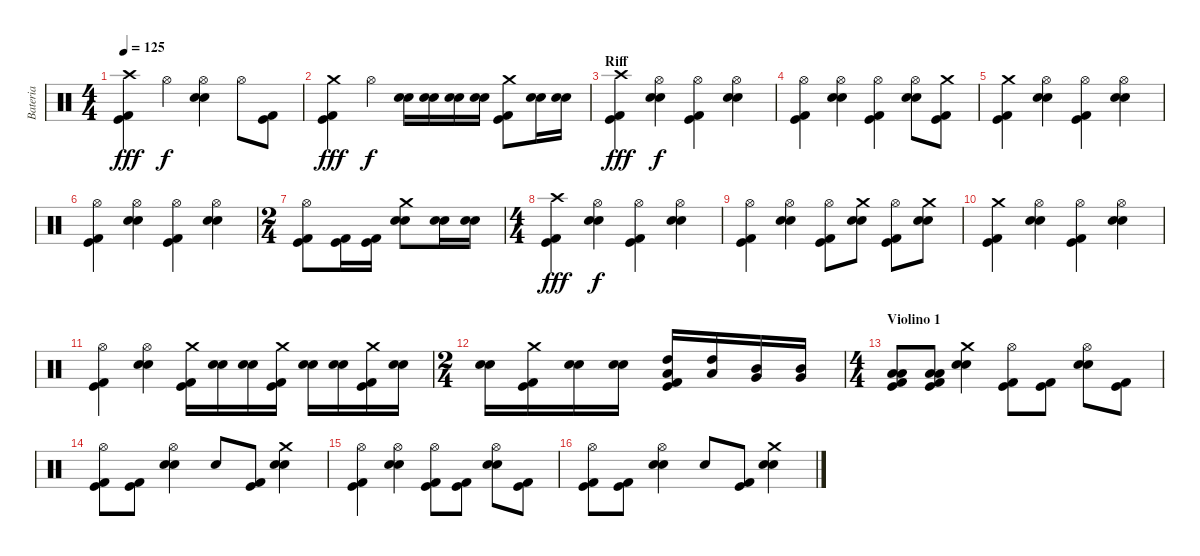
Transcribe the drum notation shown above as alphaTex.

\track ("Bateria" "Bateria") {instrument percussion}
\staff {score}
\articulation defaults
\ts (4 4)
\tempo 125
\clef neutral
\ks c
("Crash high (hit)" "Kick (hit) 2" "Kick (hit)").4{dy fff} "Hi-Hat (open)".4{dy f} ("Hi-Hat (open)" "Electric Snare (hit)" "Snare (hit) 2").4 "Hi-Hat (open)".8 ("Kick (hit) 2" "Kick (hit)").8 |
("Crash medium (hit)" "Kick (hit) 2" "Kick (hit)").4{dy fff} "Hi-Hat (open)".4{dy f} ("Electric Snare (hit)" "Snare (hit) 2").16 ("Electric Snare (hit)" "Snare (hit) 2").16 ("Electric Snare (hit)" "Snare (hit) 2").16 ("Electric Snare (hit)" "Snare (hit) 2").16 ("Crash medium (hit)" "Kick (hit) 2" "Kick (hit)").8 ("Electric Snare (hit)" "Snare (hit) 2").16 ("Electric Snare (hit)" "Snare (hit) 2").16 |
\section ("" "Riff")
("Crash high (hit)" "Kick (hit) 2" "Kick (hit)").4{dy fff} ("Hi-Hat (open)" "Electric Snare (hit)" "Snare (hit) 2").4{dy f} ("Hi-Hat (open)" "Kick (hit) 2" "Kick (hit)").4 ("Hi-Hat (open)" "Electric Snare (hit)" "Snare (hit) 2").4 |
("Hi-Hat (open)" "Kick (hit) 2" "Kick (hit)").4 ("Hi-Hat (open)" "Electric Snare (hit)" "Snare (hit) 2").4 ("Hi-Hat (open)" "Kick (hit) 2" "Kick (hit)").4 ("Hi-Hat (open)" "Electric Snare (hit)" "Snare (hit) 2").8 ("Crash medium (hit)" "Kick (hit) 2" "Kick (hit)").8 |
("Crash medium (hit)" "Kick (hit) 2" "Kick (hit)").4 ("Hi-Hat (open)" "Electric Snare (hit)" "Snare (hit) 2").4 ("Hi-Hat (open)" "Kick (hit) 2" "Kick (hit)").4 ("Hi-Hat (open)" "Electric Snare (hit)" "Snare (hit) 2").4 |
("Hi-Hat (open)" "Kick (hit) 2" "Kick (hit)").4 ("Hi-Hat (open)" "Electric Snare (hit)" "Snare (hit) 2").4 ("Hi-Hat (open)" "Kick (hit) 2" "Kick (hit)").4 ("Hi-Hat (open)" "Electric Snare (hit)" "Snare (hit) 2").4 |
\ts (2 4)
("Hi-Hat (open)" "Kick (hit) 2" "Kick (hit)").8 ("Kick (hit) 2" "Kick (hit)").16 ("Kick (hit) 2" "Kick (hit)").16 ("Crash medium (hit)" "Electric Snare (hit)" "Snare (hit) 2").8 ("Electric Snare (hit)" "Snare (hit) 2").16 ("Electric Snare (hit)" "Snare (hit) 2").16 |
\ts (4 4)
("Crash high (hit)" "Kick (hit) 2" "Kick (hit)").4{dy fff} ("Hi-Hat (open)" "Electric Snare (hit)" "Snare (hit) 2").4{dy f} ("Hi-Hat (open)" "Kick (hit) 2" "Kick (hit)").4 ("Hi-Hat (open)" "Electric Snare (hit)" "Snare (hit) 2").4 |
("Hi-Hat (open)" "Kick (hit) 2" "Kick (hit)").4 ("Hi-Hat (open)" "Electric Snare (hit)" "Snare (hit) 2").4 ("Hi-Hat (open)" "Kick (hit) 2" "Kick (hit)").8 ("Crash medium (hit)" "Electric Snare (hit)" "Snare (hit) 2").8 ("Hi-Hat (open)" "Kick (hit) 2" "Kick (hit)").8 ("Crash medium (hit)" "Electric Snare (hit)" "Snare (hit) 2").8 |
("Crash medium (hit)" "Kick (hit) 2" "Kick (hit)").4 ("Hi-Hat (open)" "Electric Snare (hit)" "Snare (hit) 2").4 ("Hi-Hat (open)" "Kick (hit) 2" "Kick (hit)").4 ("Hi-Hat (open)" "Electric Snare (hit)" "Snare (hit) 2").4 |
("Hi-Hat (open)" "Kick (hit) 2" "Kick (hit)").4 ("Hi-Hat (open)" "Electric Snare (hit)" "Snare (hit) 2").4 ("Crash medium (hit)" "Kick (hit) 2" "Kick (hit)").16 ("Electric Snare (hit)" "Snare (hit) 2").16 ("Electric Snare (hit)" "Snare (hit) 2").16 ("Crash medium (hit)" "Kick (hit) 2" "Kick (hit)").16 ("Electric Snare (hit)" "Snare (hit) 2").16 ("Electric Snare (hit)" "Snare (hit) 2").16 ("Crash medium (hit)" "Kick (hit) 2" "Kick (hit)").16 ("Electric Snare (hit)" "Snare (hit) 2").16 |
\ts (2 4)
("Electric Snare (hit)" "Snare (hit) 2").16 ("Crash medium (hit)" "Kick (hit) 2" "Kick (hit)").16 ("Electric Snare (hit)" "Snare (hit) 2").16 ("Electric Snare (hit)" "Snare (hit) 2").16 ("High Tom (hit)" "Low Tom (hit)" "Kick (hit) 2" "Kick (hit)").16 ("High Tom (hit)" "Low Tom (hit)").16 ("Mid Tom (hit)" "Very Low Tom (hit)").16 ("Mid Tom (hit)" "Very Low Tom (hit)").16 |
\ts (4 4)
\section ("" "Violino 1")
("Low Tom (hit)" "Low Floor Tom (hit)" "Kick (hit) 2" "Kick (hit)").8 ("Low Tom (hit)" "Low Floor Tom (hit)" "Kick (hit) 2" "Kick (hit)").8 ("Crash medium (hit)" "Electric Snare (hit)" "Snare (hit) 2").4 ("Hi-Hat (open)" "Kick (hit) 2" "Kick (hit)").8 ("Kick (hit) 2" "Kick (hit)").8 ("Hi-Hat (open)" "Electric Snare (hit)" "Snare (hit) 2").8 ("Kick (hit) 2" "Kick (hit)").8 |
("Hi-Hat (open)" "Kick (hit) 2" "Kick (hit)").8 ("Kick (hit) 2" "Kick (hit)").8 ("Hi-Hat (open)" "Electric Snare (hit)" "Snare (hit) 2").4 "Snare (hit)"{x}.8 ("Kick (hit) 2" "Kick (hit)").8 ("Crash medium (hit)" "Electric Snare (hit)" "Snare (hit) 2").4 |
("Hi-Hat (open)" "Kick (hit) 2" "Kick (hit)").4 ("Hi-Hat (open)" "Electric Snare (hit)" "Snare (hit) 2").4 ("Hi-Hat (open)" "Kick (hit) 2" "Kick (hit)").8 ("Kick (hit) 2" "Kick (hit)").8 ("Hi-Hat (open)" "Electric Snare (hit)" "Snare (hit) 2").8 ("Kick (hit) 2" "Kick (hit)").8 |
("Hi-Hat (open)" "Kick (hit) 2" "Kick (hit)").8 ("Kick (hit) 2" "Kick (hit)").8 ("Hi-Hat (open)" "Electric Snare (hit)" "Snare (hit) 2").4 "Snare (hit)"{x}.8 ("Kick (hit) 2" "Kick (hit)").8 ("Crash medium (hit)" "Electric Snare (hit)" "Snare (hit) 2").4
